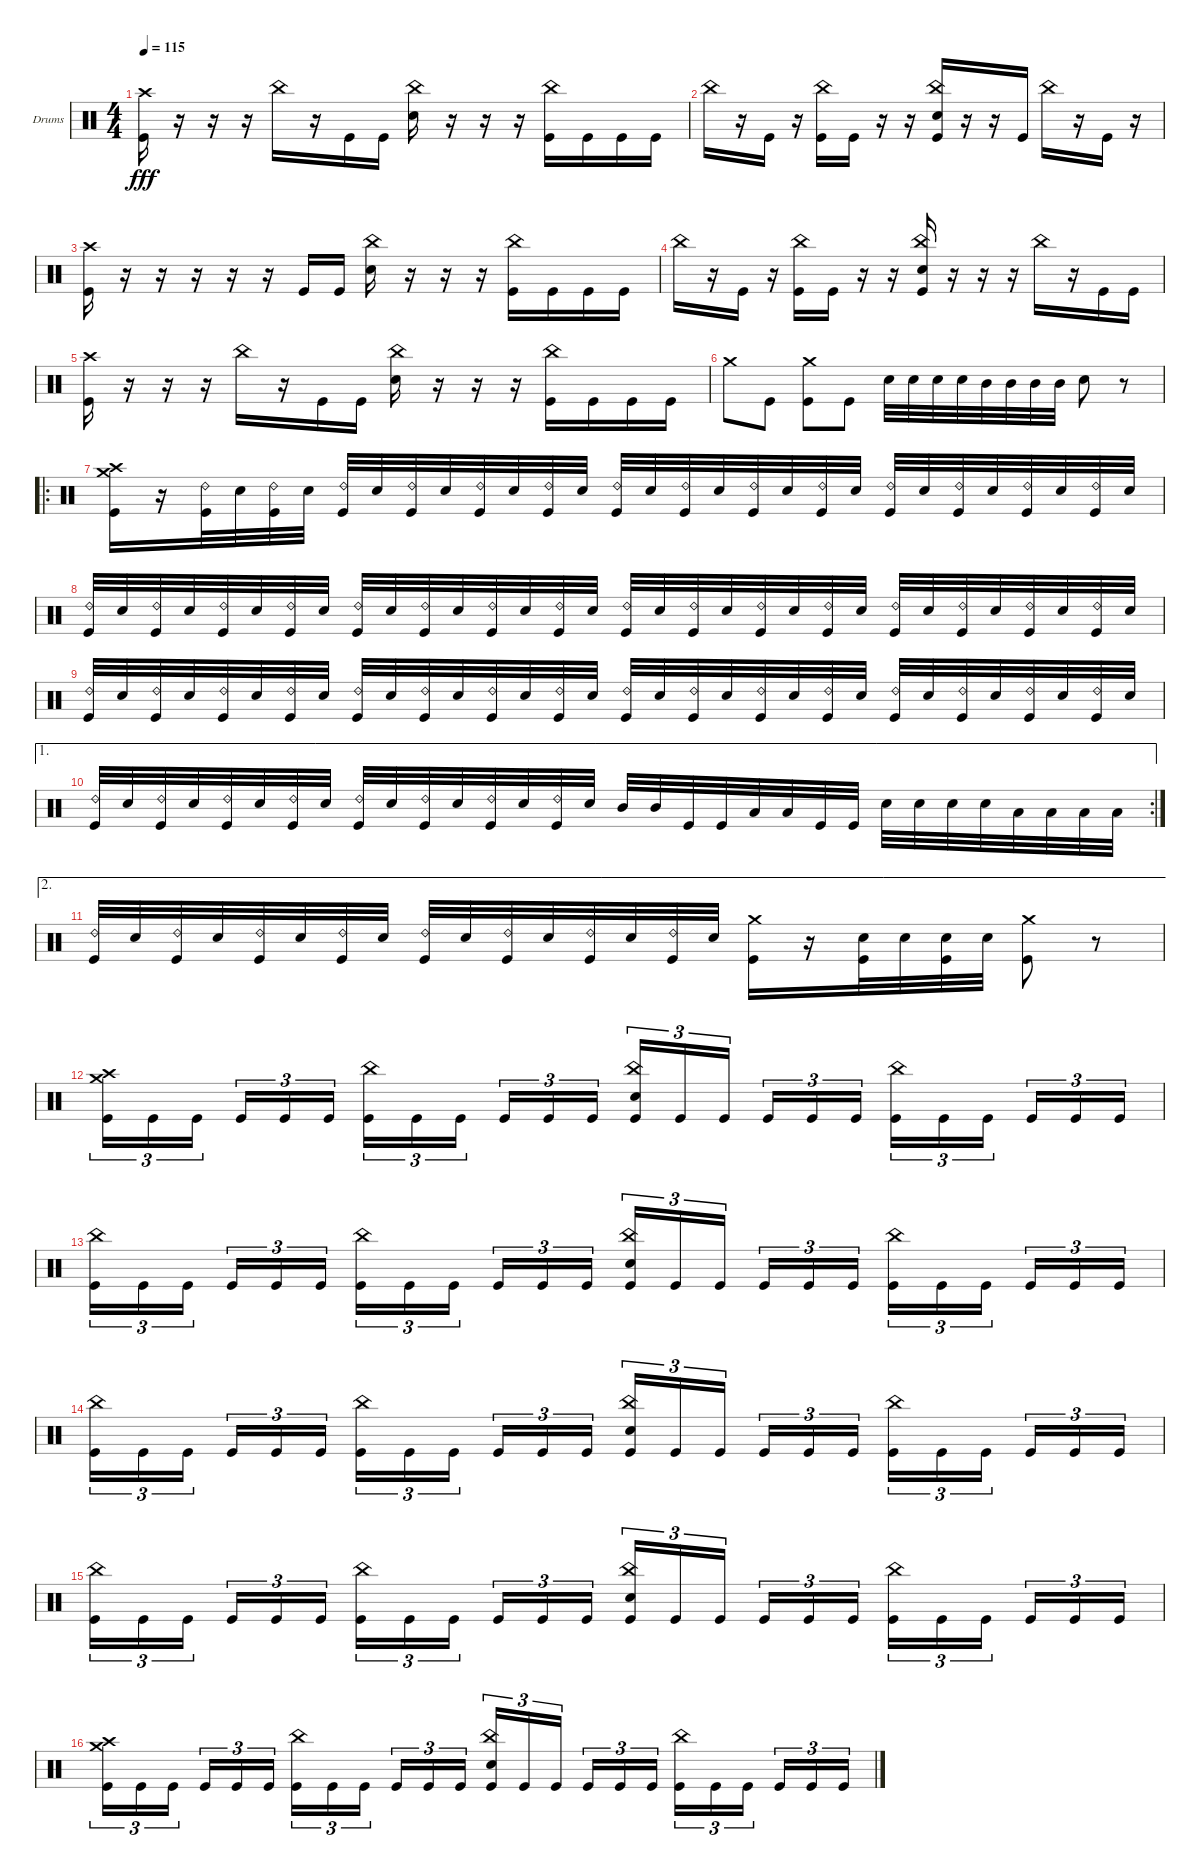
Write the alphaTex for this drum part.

\bracketExtendMode groupsimilarinstruments
\firstSystemTrackNameOrientation horizontal
\otherSystemsTrackNameOrientation horizontal
\track ("Drumkit" "Drums") {instrument percussion}
\staff {score}
\articulation defaults
\ts (4 4)
\tempo 115
\clef neutral
\ks c
("Kick (hit)" "Crash high (hit)").16{dy fff} r.16 r.16 r.16 "China (hit)".16 r.16 "Kick (hit)".16 "Kick (hit)".16 ("China (hit)" "Snare (hit) 2").16 r.16 r.16 r.16 ("China (hit)" "Kick (hit)").16 "Kick (hit)".16 "Kick (hit)".16 "Kick (hit)".16 |
"China (hit)".16 r.16 "Kick (hit)".16 r.16 ("Kick (hit)" "China (hit)").16 "Kick (hit)".16 r.16 r.16 ("China (hit)" "Snare (hit) 2" "Kick (hit)").16 r.16 r.16 "Kick (hit)".16 "China (hit)".16 r.16 "Kick (hit)".16 r.16 |
("Kick (hit)" "Crash high (hit)").16 r.16 r.16 r.16 r.16 r.16 "Kick (hit)".16 "Kick (hit)".16 ("China (hit)" "Snare (hit) 2").16 r.16 r.16 r.16 ("China (hit)" "Kick (hit)").16 "Kick (hit)".16 "Kick (hit)".16 "Kick (hit)".16 |
"China (hit)".16 r.16 "Kick (hit)".16 r.16 ("Kick (hit)" "China (hit)").16 "Kick (hit)".16 r.16 r.16 ("China (hit)" "Snare (hit) 2" "Kick (hit)").16 r.16 r.16 r.16 "China (hit)".16 r.16 "Kick (hit)".16 "Kick (hit)".16 |
("Kick (hit)" "Crash high (hit)").16 r.16 r.16 r.16 "China (hit)".16 r.16 "Kick (hit)".16 "Kick (hit)".16 ("China (hit)" "Snare (hit) 2").16 r.16 r.16 r.16 ("China (hit)" "Kick (hit)").16 "Kick (hit)".16 "Kick (hit)".16 "Kick (hit)".16 |
"Crash medium (hit)".8 "Kick (hit)".8 ("Kick (hit)" "Crash medium (hit)").8 "Kick (hit)".8 "Snare (hit) 2".32 "Snare (hit) 2".32 "Snare (hit) 2".32 "Snare (hit) 2".32 "Mid Tom (hit)".32 "Mid Tom (hit)".32 "Mid Tom (hit)".32 "Mid Tom (hit)".32 "Snare (hit) 2".8 r.8 |
\ro
("Kick (hit)" "Crash medium (hit)" "Crash high (hit)").16 r.16 ("Kick (hit)" "Ride (bell) 2").32 "Snare (hit) 2".32 ("Kick (hit)" "Ride (bell) 2").32 "Snare (hit) 2".32 ("Kick (hit)" "Ride (bell) 2").32 "Snare (hit) 2".32 ("Kick (hit)" "Ride (bell) 2").32 "Snare (hit) 2".32 ("Kick (hit)" "Ride (bell) 2").32 "Snare (hit) 2".32 ("Kick (hit)" "Ride (bell) 2").32 "Snare (hit) 2".32 ("Kick (hit)" "Ride (bell) 2").32 "Snare (hit) 2".32 ("Kick (hit)" "Ride (bell) 2").32 "Snare (hit) 2".32 ("Kick (hit)" "Ride (bell) 2").32 "Snare (hit) 2".32 ("Kick (hit)" "Ride (bell) 2").32 "Snare (hit) 2".32 ("Kick (hit)" "Ride (bell) 2").32 "Snare (hit) 2".32 ("Kick (hit)" "Ride (bell) 2").32 "Snare (hit) 2".32 ("Kick (hit)" "Ride (bell) 2").32 "Snare (hit) 2".32 ("Kick (hit)" "Ride (bell) 2").32 "Snare (hit) 2".32 |
("Kick (hit)" "Ride (bell) 2").32 "Snare (hit) 2".32 ("Kick (hit)" "Ride (bell) 2").32 "Snare (hit) 2".32 ("Kick (hit)" "Ride (bell) 2").32 "Snare (hit) 2".32 ("Kick (hit)" "Ride (bell) 2").32 "Snare (hit) 2".32 ("Kick (hit)" "Ride (bell) 2").32 "Snare (hit) 2".32 ("Kick (hit)" "Ride (bell) 2").32 "Snare (hit) 2".32 ("Kick (hit)" "Ride (bell) 2").32 "Snare (hit) 2".32 ("Kick (hit)" "Ride (bell) 2").32 "Snare (hit) 2".32 ("Kick (hit)" "Ride (bell) 2").32 "Snare (hit) 2".32 ("Kick (hit)" "Ride (bell) 2").32 "Snare (hit) 2".32 ("Kick (hit)" "Ride (bell) 2").32 "Snare (hit) 2".32 ("Kick (hit)" "Ride (bell) 2").32 "Snare (hit) 2".32 ("Kick (hit)" "Ride (bell) 2").32 "Snare (hit) 2".32 ("Kick (hit)" "Ride (bell) 2").32 "Snare (hit) 2".32 ("Kick (hit)" "Ride (bell) 2").32 "Snare (hit) 2".32 ("Kick (hit)" "Ride (bell) 2").32 "Snare (hit) 2".32 |
("Kick (hit)" "Ride (bell) 2").32 "Snare (hit) 2".32 ("Kick (hit)" "Ride (bell) 2").32 "Snare (hit) 2".32 ("Kick (hit)" "Ride (bell) 2").32 "Snare (hit) 2".32 ("Kick (hit)" "Ride (bell) 2").32 "Snare (hit) 2".32 ("Kick (hit)" "Ride (bell) 2").32 "Snare (hit) 2".32 ("Kick (hit)" "Ride (bell) 2").32 "Snare (hit) 2".32 ("Kick (hit)" "Ride (bell) 2").32 "Snare (hit) 2".32 ("Kick (hit)" "Ride (bell) 2").32 "Snare (hit) 2".32 ("Kick (hit)" "Ride (bell) 2").32 "Snare (hit) 2".32 ("Kick (hit)" "Ride (bell) 2").32 "Snare (hit) 2".32 ("Kick (hit)" "Ride (bell) 2").32 "Snare (hit) 2".32 ("Kick (hit)" "Ride (bell) 2").32 "Snare (hit) 2".32 ("Kick (hit)" "Ride (bell) 2").32 "Snare (hit) 2".32 ("Kick (hit)" "Ride (bell) 2").32 "Snare (hit) 2".32 ("Kick (hit)" "Ride (bell) 2").32 "Snare (hit) 2".32 ("Kick (hit)" "Ride (bell) 2").32 "Snare (hit) 2".32 |
\ae 1
\rc 2
("Kick (hit)" "Ride (bell) 2").32 "Snare (hit) 2".32 ("Kick (hit)" "Ride (bell) 2").32 "Snare (hit) 2".32 ("Kick (hit)" "Ride (bell) 2").32 "Snare (hit) 2".32 ("Kick (hit)" "Ride (bell) 2").32 "Snare (hit) 2".32 ("Kick (hit)" "Ride (bell) 2").32 "Snare (hit) 2".32 ("Kick (hit)" "Ride (bell) 2").32 "Snare (hit) 2".32 ("Kick (hit)" "Ride (bell) 2").32 "Snare (hit) 2".32 ("Kick (hit)" "Ride (bell) 2").32 "Snare (hit) 2".32 "Mid Tom (hit)".32 "Mid Tom (hit)".32 "Kick (hit)".32 "Kick (hit)".32 "Low Tom (hit)".32 "Low Tom (hit)".32 "Kick (hit)".32 "Kick (hit)".32 "Snare (hit) 2".32 "Snare (hit) 2".32 "Snare (hit) 2".32 "Snare (hit) 2".32 "Low Tom (hit)".32 "Low Tom (hit)".32 "Low Tom (hit)".32 "Low Tom (hit)".32 |
\ae 2
("Kick (hit)" "Ride (bell) 2").32 "Snare (hit) 2".32 ("Kick (hit)" "Ride (bell) 2").32 "Snare (hit) 2".32 ("Kick (hit)" "Ride (bell) 2").32 "Snare (hit) 2".32 ("Kick (hit)" "Ride (bell) 2").32 "Snare (hit) 2".32 ("Kick (hit)" "Ride (bell) 2").32 "Snare (hit) 2".32 ("Kick (hit)" "Ride (bell) 2").32 "Snare (hit) 2".32 ("Kick (hit)" "Ride (bell) 2").32 "Snare (hit) 2".32 ("Kick (hit)" "Ride (bell) 2").32 "Snare (hit) 2".32 ("Kick (hit)" "Crash medium (hit)").16 r.16 ("Snare (hit) 2" "Kick (hit)").32 "Snare (hit) 2".32 ("Snare (hit) 2" "Kick (hit)").32 "Snare (hit) 2".32 ("Kick (hit)" "Crash medium (hit)").8 r.8 |
("Kick (hit)" "Crash high (hit)" "Crash medium (hit)").16{tu (3 2)} "Kick (hit)".16{tu (3 2)} "Kick (hit)".16{tu (3 2)} "Kick (hit)".16{tu (3 2)} "Kick (hit)".16{tu (3 2)} "Kick (hit)".16{tu (3 2)} ("Kick (hit)" "China (hit)").16{tu (3 2)} "Kick (hit)".16{tu (3 2)} "Kick (hit)".16{tu (3 2)} "Kick (hit)".16{tu (3 2)} "Kick (hit)".16{tu (3 2)} "Kick (hit)".16{tu (3 2)} ("Kick (hit)" "China (hit)" "Snare (hit) 2").16{tu (3 2)} "Kick (hit)".16{tu (3 2)} "Kick (hit)".16{tu (3 2)} "Kick (hit)".16{tu (3 2)} "Kick (hit)".16{tu (3 2)} "Kick (hit)".16{tu (3 2)} ("Kick (hit)" "China (hit)").16{tu (3 2)} "Kick (hit)".16{tu (3 2)} "Kick (hit)".16{tu (3 2)} "Kick (hit)".16{tu (3 2)} "Kick (hit)".16{tu (3 2)} "Kick (hit)".16{tu (3 2)} |
("Kick (hit)" "China (hit)").16{tu (3 2)} "Kick (hit)".16{tu (3 2)} "Kick (hit)".16{tu (3 2)} "Kick (hit)".16{tu (3 2)} "Kick (hit)".16{tu (3 2)} "Kick (hit)".16{tu (3 2)} ("Kick (hit)" "China (hit)").16{tu (3 2)} "Kick (hit)".16{tu (3 2)} "Kick (hit)".16{tu (3 2)} "Kick (hit)".16{tu (3 2)} "Kick (hit)".16{tu (3 2)} "Kick (hit)".16{tu (3 2)} ("Kick (hit)" "China (hit)" "Snare (hit) 2").16{tu (3 2)} "Kick (hit)".16{tu (3 2)} "Kick (hit)".16{tu (3 2)} "Kick (hit)".16{tu (3 2)} "Kick (hit)".16{tu (3 2)} "Kick (hit)".16{tu (3 2)} ("Kick (hit)" "China (hit)").16{tu (3 2)} "Kick (hit)".16{tu (3 2)} "Kick (hit)".16{tu (3 2)} "Kick (hit)".16{tu (3 2)} "Kick (hit)".16{tu (3 2)} "Kick (hit)".16{tu (3 2)} |
("Kick (hit)" "China (hit)").16{tu (3 2)} "Kick (hit)".16{tu (3 2)} "Kick (hit)".16{tu (3 2)} "Kick (hit)".16{tu (3 2)} "Kick (hit)".16{tu (3 2)} "Kick (hit)".16{tu (3 2)} ("Kick (hit)" "China (hit)").16{tu (3 2)} "Kick (hit)".16{tu (3 2)} "Kick (hit)".16{tu (3 2)} "Kick (hit)".16{tu (3 2)} "Kick (hit)".16{tu (3 2)} "Kick (hit)".16{tu (3 2)} ("Kick (hit)" "China (hit)" "Snare (hit) 2").16{tu (3 2)} "Kick (hit)".16{tu (3 2)} "Kick (hit)".16{tu (3 2)} "Kick (hit)".16{tu (3 2)} "Kick (hit)".16{tu (3 2)} "Kick (hit)".16{tu (3 2)} ("Kick (hit)" "China (hit)").16{tu (3 2)} "Kick (hit)".16{tu (3 2)} "Kick (hit)".16{tu (3 2)} "Kick (hit)".16{tu (3 2)} "Kick (hit)".16{tu (3 2)} "Kick (hit)".16{tu (3 2)} |
("Kick (hit)" "China (hit)").16{tu (3 2)} "Kick (hit)".16{tu (3 2)} "Kick (hit)".16{tu (3 2)} "Kick (hit)".16{tu (3 2)} "Kick (hit)".16{tu (3 2)} "Kick (hit)".16{tu (3 2)} ("Kick (hit)" "China (hit)").16{tu (3 2)} "Kick (hit)".16{tu (3 2)} "Kick (hit)".16{tu (3 2)} "Kick (hit)".16{tu (3 2)} "Kick (hit)".16{tu (3 2)} "Kick (hit)".16{tu (3 2)} ("Kick (hit)" "China (hit)" "Snare (hit) 2").16{tu (3 2)} "Kick (hit)".16{tu (3 2)} "Kick (hit)".16{tu (3 2)} "Kick (hit)".16{tu (3 2)} "Kick (hit)".16{tu (3 2)} "Kick (hit)".16{tu (3 2)} ("Kick (hit)" "China (hit)").16{tu (3 2)} "Kick (hit)".16{tu (3 2)} "Kick (hit)".16{tu (3 2)} "Kick (hit)".16{tu (3 2)} "Kick (hit)".16{tu (3 2)} "Kick (hit)".16{tu (3 2)} |
("Kick (hit)" "Crash high (hit)" "Crash medium (hit)").16{tu (3 2)} "Kick (hit)".16{tu (3 2)} "Kick (hit)".16{tu (3 2)} "Kick (hit)".16{tu (3 2)} "Kick (hit)".16{tu (3 2)} "Kick (hit)".16{tu (3 2)} ("Kick (hit)" "China (hit)").16{tu (3 2)} "Kick (hit)".16{tu (3 2)} "Kick (hit)".16{tu (3 2)} "Kick (hit)".16{tu (3 2)} "Kick (hit)".16{tu (3 2)} "Kick (hit)".16{tu (3 2)} ("Kick (hit)" "China (hit)" "Snare (hit) 2").16{tu (3 2)} "Kick (hit)".16{tu (3 2)} "Kick (hit)".16{tu (3 2)} "Kick (hit)".16{tu (3 2)} "Kick (hit)".16{tu (3 2)} "Kick (hit)".16{tu (3 2)} ("Kick (hit)" "China (hit)").16{tu (3 2)} "Kick (hit)".16{tu (3 2)} "Kick (hit)".16{tu (3 2)} "Kick (hit)".16{tu (3 2)} "Kick (hit)".16{tu (3 2)} "Kick (hit)".16{tu (3 2)}
